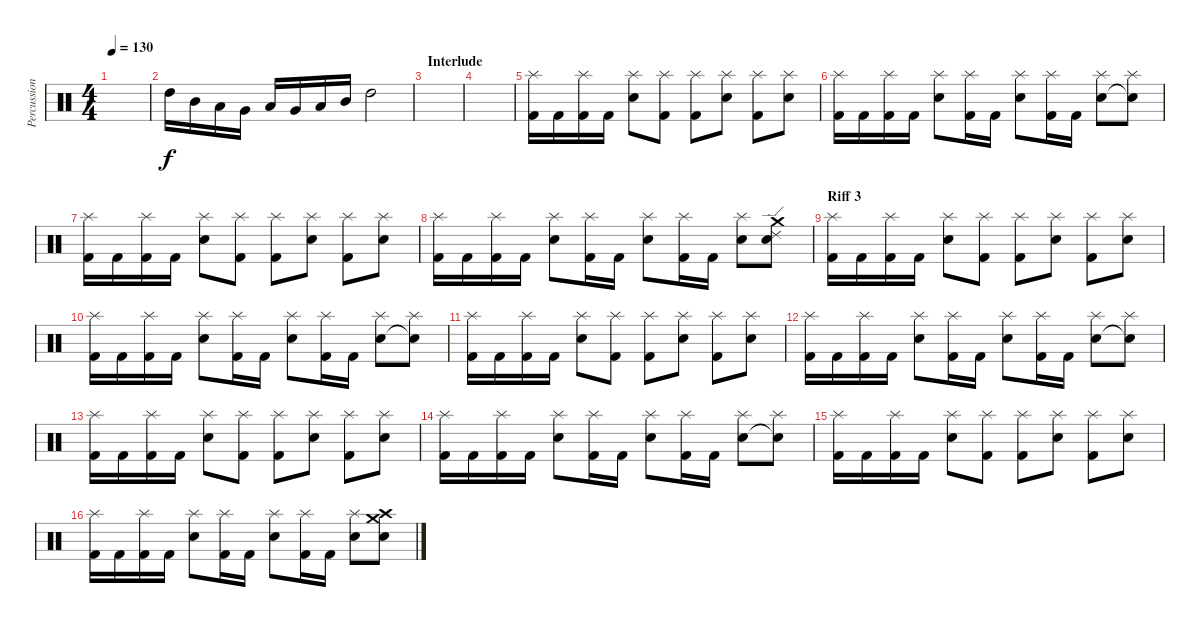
\track ("Percussion" "Percussion") {instrument percussion}
\staff {score}
\articulation defaults
\ts (4 4)
\tempo 130
\clef neutral
\ks c
|
"High Tom (hit)".16 "Mid Tom (hit)".16 "Low Tom (hit)".16 "Very Low Tom (hit)".16 "Low Floor Tom (hit)".16 "Very Low Tom (hit)".16 "Low Tom (hit)".16 "Mid Tom (hit)".16 "High Tom (hit)".2 |
\section ("" "Interlude")
|
|
("Splash (hit)" "Kick (hit) 2").16 "Kick (hit) 2".16 ("Splash (hit)" "Kick (hit) 2").16 "Kick (hit) 2".16 ("Splash (hit)" "Snare (hit) 2").8 ("Splash (hit)" "Kick (hit) 2").8 ("Splash (hit)" "Kick (hit) 2").8 ("Splash (hit)" "Snare (hit) 2").8 ("Splash (hit)" "Kick (hit) 2").8 ("Splash (hit)" "Snare (hit) 2").8 |
("Splash (hit)" "Kick (hit) 2").16 "Kick (hit) 2".16 ("Splash (hit)" "Kick (hit) 2").16 "Kick (hit) 2".16 ("Splash (hit)" "Snare (hit) 2").8 ("Splash (hit)" "Kick (hit) 2").16 "Kick (hit) 2".16 ("Splash (hit)" "Snare (hit) 2").8 ("Splash (hit)" "Kick (hit) 2").16 "Kick (hit) 2".16 ("Splash (hit)" "Snare (hit) 2").8 ("Splash (hit)" "Snare (hit)"{t}).8 |
("Splash (hit)" "Kick (hit) 2").16 "Kick (hit) 2".16 ("Splash (hit)" "Kick (hit) 2").16 "Kick (hit) 2".16 ("Splash (hit)" "Snare (hit) 2").8 ("Splash (hit)" "Kick (hit) 2").8 ("Splash (hit)" "Kick (hit) 2").8 ("Splash (hit)" "Snare (hit) 2").8 ("Splash (hit)" "Kick (hit) 2").8 ("Splash (hit)" "Snare (hit) 2").8 |
("Splash (hit)" "Kick (hit) 2").16 "Kick (hit) 2".16 ("Splash (hit)" "Kick (hit) 2").16 "Kick (hit) 2".16 ("Splash (hit)" "Snare (hit) 2").8 ("Splash (hit)" "Kick (hit) 2").16 "Kick (hit) 2".16 ("Splash (hit)" "Snare (hit) 2").8 ("Splash (hit)" "Kick (hit) 2").16 "Kick (hit) 2".16 ("Splash (hit)" "Snare (hit) 2").8 ("Crash medium (hit)" "Ride (edge) 2" "Snare (hit)").8 |
\section ("" "Riff 3")
("Splash (hit)" "Kick (hit) 2").16 "Kick (hit) 2".16 ("Splash (hit)" "Kick (hit) 2").16 "Kick (hit) 2".16 ("Splash (hit)" "Snare (hit) 2").8 ("Splash (hit)" "Kick (hit) 2").8 ("Splash (hit)" "Kick (hit) 2").8 ("Splash (hit)" "Snare (hit) 2").8 ("Splash (hit)" "Kick (hit) 2").8 ("Splash (hit)" "Snare (hit) 2").8 |
("Splash (hit)" "Kick (hit) 2").16 "Kick (hit) 2".16 ("Splash (hit)" "Kick (hit) 2").16 "Kick (hit) 2".16 ("Splash (hit)" "Snare (hit) 2").8 ("Splash (hit)" "Kick (hit) 2").16 "Kick (hit) 2".16 ("Splash (hit)" "Snare (hit) 2").8 ("Splash (hit)" "Kick (hit) 2").16 "Kick (hit) 2".16 ("Splash (hit)" "Snare (hit) 2").8 ("Splash (hit)" "Snare (hit)"{t}).8 |
("Splash (hit)" "Kick (hit) 2").16 "Kick (hit) 2".16 ("Splash (hit)" "Kick (hit) 2").16 "Kick (hit) 2".16 ("Splash (hit)" "Snare (hit) 2").8 ("Splash (hit)" "Kick (hit) 2").8 ("Splash (hit)" "Kick (hit) 2").8 ("Splash (hit)" "Snare (hit) 2").8 ("Splash (hit)" "Kick (hit) 2").8 ("Splash (hit)" "Snare (hit) 2").8 |
("Splash (hit)" "Kick (hit) 2").16 "Kick (hit) 2".16 ("Splash (hit)" "Kick (hit) 2").16 "Kick (hit) 2".16 ("Splash (hit)" "Snare (hit) 2").8 ("Splash (hit)" "Kick (hit) 2").16 "Kick (hit) 2".16 ("Splash (hit)" "Snare (hit) 2").8 ("Splash (hit)" "Kick (hit) 2").16 "Kick (hit) 2".16 ("Splash (hit)" "Snare (hit) 2").8 ("Splash (hit)" "Snare (hit)"{t}).8 |
("Splash (hit)" "Kick (hit) 2").16 "Kick (hit) 2".16 ("Splash (hit)" "Kick (hit) 2").16 "Kick (hit) 2".16 ("Splash (hit)" "Snare (hit) 2").8 ("Splash (hit)" "Kick (hit) 2").8 ("Splash (hit)" "Kick (hit) 2").8 ("Splash (hit)" "Snare (hit) 2").8 ("Splash (hit)" "Kick (hit) 2").8 ("Splash (hit)" "Snare (hit) 2").8 |
("Splash (hit)" "Kick (hit) 2").16 "Kick (hit) 2".16 ("Splash (hit)" "Kick (hit) 2").16 "Kick (hit) 2".16 ("Splash (hit)" "Snare (hit) 2").8 ("Splash (hit)" "Kick (hit) 2").16 "Kick (hit) 2".16 ("Splash (hit)" "Snare (hit) 2").8 ("Splash (hit)" "Kick (hit) 2").16 "Kick (hit) 2".16 ("Splash (hit)" "Snare (hit) 2").8 ("Splash (hit)" "Snare (hit)"{t}).8 |
("Splash (hit)" "Kick (hit) 2").16 "Kick (hit) 2".16 ("Splash (hit)" "Kick (hit) 2").16 "Kick (hit) 2".16 ("Splash (hit)" "Snare (hit) 2").8 ("Splash (hit)" "Kick (hit) 2").8 ("Splash (hit)" "Kick (hit) 2").8 ("Splash (hit)" "Snare (hit) 2").8 ("Splash (hit)" "Kick (hit) 2").8 ("Splash (hit)" "Snare (hit) 2").8 |
("Splash (hit)" "Kick (hit) 2").16 "Kick (hit) 2".16 ("Splash (hit)" "Kick (hit) 2").16 "Kick (hit) 2".16 ("Splash (hit)" "Snare (hit) 2").8 ("Splash (hit)" "Kick (hit) 2").16 "Kick (hit) 2".16 ("Splash (hit)" "Snare (hit) 2").8 ("Splash (hit)" "Kick (hit) 2").16 "Kick (hit) 2".16 ("Splash (hit)" "Snare (hit) 2").8 ("Crash medium (hit)" "Crash high (hit)" "Snare (hit)").8
